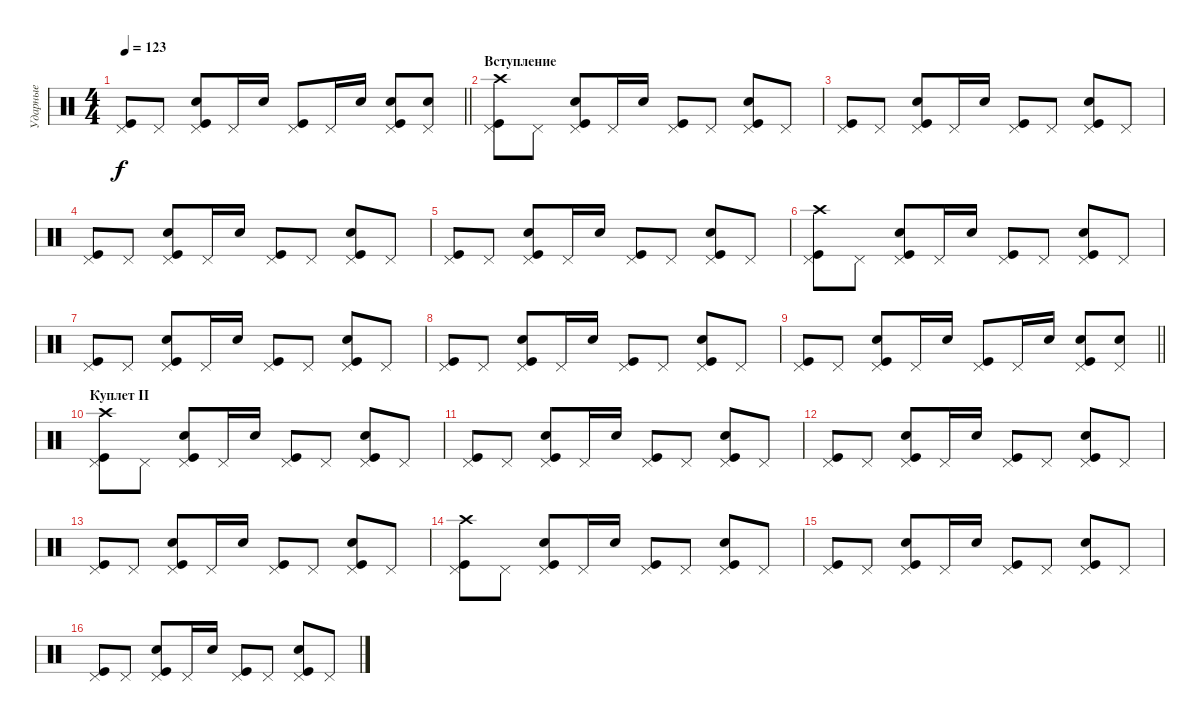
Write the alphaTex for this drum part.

\track ("Ударные" "Ударные") {instrument percussion}
\staff {score}
\articulation defaults
\ts (4 4)
\tempo 123
\clef neutral
\barLineRight lightlight
\ks c
("Kick (hit)" "Pedal Hi-Hat (hit)").8{dy f} "Pedal Hi-Hat (hit)".8 ("Kick (hit)" "Pedal Hi-Hat (hit)" "Snare (hit) 2").8 "Pedal Hi-Hat (hit)".16 "Snare (hit) 2".16 ("Kick (hit)" "Pedal Hi-Hat (hit)").8 "Pedal Hi-Hat (hit)".16 "Snare (hit) 2".16 ("Kick (hit)" "Pedal Hi-Hat (hit)" "Snare (hit) 2").8 ("Pedal Hi-Hat (hit)" "Snare (hit) 2").8 |
\section ("" "Вступление")
("Kick (hit)" "Pedal Hi-Hat (hit)" "Crash high (hit)").8 "Pedal Hi-Hat (hit)".8 ("Kick (hit)" "Pedal Hi-Hat (hit)" "Snare (hit) 2").8 "Pedal Hi-Hat (hit)".16 "Snare (hit) 2".16 ("Kick (hit)" "Pedal Hi-Hat (hit)").8 "Pedal Hi-Hat (hit)".8 ("Kick (hit)" "Pedal Hi-Hat (hit)" "Snare (hit) 2").8 "Pedal Hi-Hat (hit)".8 |
("Kick (hit)" "Pedal Hi-Hat (hit)").8 "Pedal Hi-Hat (hit)".8 ("Kick (hit)" "Pedal Hi-Hat (hit)" "Snare (hit) 2").8 "Pedal Hi-Hat (hit)".16 "Snare (hit) 2".16 ("Kick (hit)" "Pedal Hi-Hat (hit)").8 "Pedal Hi-Hat (hit)".8 ("Kick (hit)" "Pedal Hi-Hat (hit)" "Snare (hit) 2").8 "Pedal Hi-Hat (hit)".8 |
("Kick (hit)" "Pedal Hi-Hat (hit)").8 "Pedal Hi-Hat (hit)".8 ("Kick (hit)" "Pedal Hi-Hat (hit)" "Snare (hit) 2").8 "Pedal Hi-Hat (hit)".16 "Snare (hit) 2".16 ("Kick (hit)" "Pedal Hi-Hat (hit)").8 "Pedal Hi-Hat (hit)".8 ("Kick (hit)" "Pedal Hi-Hat (hit)" "Snare (hit) 2").8 "Pedal Hi-Hat (hit)".8 |
("Kick (hit)" "Pedal Hi-Hat (hit)").8 "Pedal Hi-Hat (hit)".8 ("Kick (hit)" "Pedal Hi-Hat (hit)" "Snare (hit) 2").8 "Pedal Hi-Hat (hit)".16 "Snare (hit) 2".16 ("Kick (hit)" "Pedal Hi-Hat (hit)").8 "Pedal Hi-Hat (hit)".8 ("Kick (hit)" "Pedal Hi-Hat (hit)" "Snare (hit) 2").8 "Pedal Hi-Hat (hit)".8 |
("Kick (hit)" "Pedal Hi-Hat (hit)" "Crash high (hit)").8 "Pedal Hi-Hat (hit)".8 ("Kick (hit)" "Pedal Hi-Hat (hit)" "Snare (hit) 2").8 "Pedal Hi-Hat (hit)".16 "Snare (hit) 2".16 ("Kick (hit)" "Pedal Hi-Hat (hit)").8 "Pedal Hi-Hat (hit)".8 ("Kick (hit)" "Pedal Hi-Hat (hit)" "Snare (hit) 2").8 "Pedal Hi-Hat (hit)".8 |
("Kick (hit)" "Pedal Hi-Hat (hit)").8 "Pedal Hi-Hat (hit)".8 ("Kick (hit)" "Pedal Hi-Hat (hit)" "Snare (hit) 2").8 "Pedal Hi-Hat (hit)".16 "Snare (hit) 2".16 ("Kick (hit)" "Pedal Hi-Hat (hit)").8 "Pedal Hi-Hat (hit)".8 ("Kick (hit)" "Pedal Hi-Hat (hit)" "Snare (hit) 2").8 "Pedal Hi-Hat (hit)".8 |
("Kick (hit)" "Pedal Hi-Hat (hit)").8 "Pedal Hi-Hat (hit)".8 ("Kick (hit)" "Pedal Hi-Hat (hit)" "Snare (hit) 2").8 "Pedal Hi-Hat (hit)".16 "Snare (hit) 2".16 ("Kick (hit)" "Pedal Hi-Hat (hit)").8 "Pedal Hi-Hat (hit)".8 ("Kick (hit)" "Pedal Hi-Hat (hit)" "Snare (hit) 2").8 "Pedal Hi-Hat (hit)".8 |
\barLineRight lightlight
("Kick (hit)" "Pedal Hi-Hat (hit)").8 "Pedal Hi-Hat (hit)".8 ("Kick (hit)" "Pedal Hi-Hat (hit)" "Snare (hit) 2").8 "Pedal Hi-Hat (hit)".16 "Snare (hit) 2".16 ("Kick (hit)" "Pedal Hi-Hat (hit)").8 "Pedal Hi-Hat (hit)".16 "Snare (hit) 2".16 ("Kick (hit)" "Pedal Hi-Hat (hit)" "Snare (hit) 2").8 ("Pedal Hi-Hat (hit)" "Snare (hit) 2").8 |
\section ("" "Куплет II")
("Kick (hit)" "Pedal Hi-Hat (hit)" "Crash high (hit)").8 "Pedal Hi-Hat (hit)".8 ("Kick (hit)" "Pedal Hi-Hat (hit)" "Snare (hit) 2").8 "Pedal Hi-Hat (hit)".16 "Snare (hit) 2".16 ("Kick (hit)" "Pedal Hi-Hat (hit)").8 "Pedal Hi-Hat (hit)".8 ("Kick (hit)" "Pedal Hi-Hat (hit)" "Snare (hit) 2").8 "Pedal Hi-Hat (hit)".8 |
("Kick (hit)" "Pedal Hi-Hat (hit)").8 "Pedal Hi-Hat (hit)".8 ("Kick (hit)" "Pedal Hi-Hat (hit)" "Snare (hit) 2").8 "Pedal Hi-Hat (hit)".16 "Snare (hit) 2".16 ("Kick (hit)" "Pedal Hi-Hat (hit)").8 "Pedal Hi-Hat (hit)".8 ("Kick (hit)" "Pedal Hi-Hat (hit)" "Snare (hit) 2").8 "Pedal Hi-Hat (hit)".8 |
("Kick (hit)" "Pedal Hi-Hat (hit)").8 "Pedal Hi-Hat (hit)".8 ("Kick (hit)" "Pedal Hi-Hat (hit)" "Snare (hit) 2").8 "Pedal Hi-Hat (hit)".16 "Snare (hit) 2".16 ("Kick (hit)" "Pedal Hi-Hat (hit)").8 "Pedal Hi-Hat (hit)".8 ("Kick (hit)" "Pedal Hi-Hat (hit)" "Snare (hit) 2").8 "Pedal Hi-Hat (hit)".8 |
("Kick (hit)" "Pedal Hi-Hat (hit)").8 "Pedal Hi-Hat (hit)".8 ("Kick (hit)" "Pedal Hi-Hat (hit)" "Snare (hit) 2").8 "Pedal Hi-Hat (hit)".16 "Snare (hit) 2".16 ("Kick (hit)" "Pedal Hi-Hat (hit)").8 "Pedal Hi-Hat (hit)".8 ("Kick (hit)" "Pedal Hi-Hat (hit)" "Snare (hit) 2").8 "Pedal Hi-Hat (hit)".8 |
("Kick (hit)" "Pedal Hi-Hat (hit)" "Crash high (hit)").8 "Pedal Hi-Hat (hit)".8 ("Kick (hit)" "Pedal Hi-Hat (hit)" "Snare (hit) 2").8 "Pedal Hi-Hat (hit)".16 "Snare (hit) 2".16 ("Kick (hit)" "Pedal Hi-Hat (hit)").8 "Pedal Hi-Hat (hit)".8 ("Kick (hit)" "Pedal Hi-Hat (hit)" "Snare (hit) 2").8 "Pedal Hi-Hat (hit)".8 |
("Kick (hit)" "Pedal Hi-Hat (hit)").8 "Pedal Hi-Hat (hit)".8 ("Kick (hit)" "Pedal Hi-Hat (hit)" "Snare (hit) 2").8 "Pedal Hi-Hat (hit)".16 "Snare (hit) 2".16 ("Kick (hit)" "Pedal Hi-Hat (hit)").8 "Pedal Hi-Hat (hit)".8 ("Kick (hit)" "Pedal Hi-Hat (hit)" "Snare (hit) 2").8 "Pedal Hi-Hat (hit)".8 |
("Kick (hit)" "Pedal Hi-Hat (hit)").8 "Pedal Hi-Hat (hit)".8 ("Kick (hit)" "Pedal Hi-Hat (hit)" "Snare (hit) 2").8 "Pedal Hi-Hat (hit)".16 "Snare (hit) 2".16 ("Kick (hit)" "Pedal Hi-Hat (hit)").8 "Pedal Hi-Hat (hit)".8 ("Kick (hit)" "Pedal Hi-Hat (hit)" "Snare (hit) 2").8 "Pedal Hi-Hat (hit)".8
